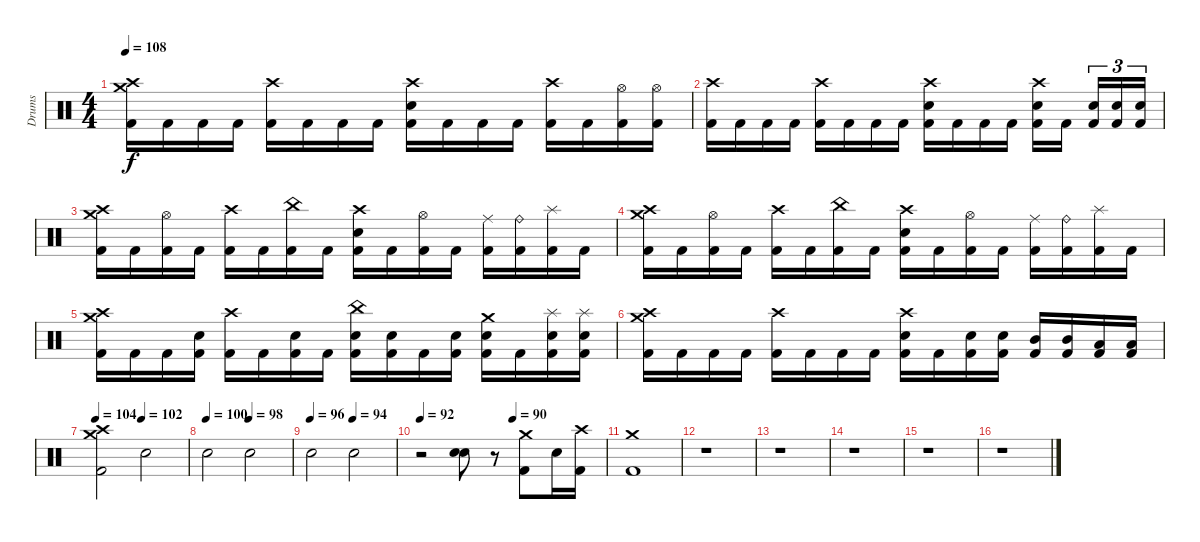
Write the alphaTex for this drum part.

\track ("Drums" "Drums") {instrument percussion}
\staff {score}
\articulation defaults
\ts (4 4)
\tempo 108
\clef neutral
\ks c
("Crash medium (hit)" "Crash high (hit)" "Kick (hit) 2").16{dy f} "Kick (hit) 2".16 "Kick (hit) 2".16 "Kick (hit) 2".16 ("Crash high (hit)" "Kick (hit) 2").16 "Kick (hit) 2".16 "Kick (hit) 2".16 "Kick (hit) 2".16 ("Crash high (hit)" "Electric Snare (hit)" "Kick (hit) 2").16 "Kick (hit) 2".16 "Kick (hit) 2".16 "Kick (hit) 2".16 ("Crash high (hit)" "Kick (hit) 2").16 "Kick (hit) 2".16 ("Hi-Hat (open)" "Kick (hit) 2").16 ("Hi-Hat (open)" "Kick (hit) 2").16 |
("Crash high (hit)" "Kick (hit) 2").16 "Kick (hit) 2".16 "Kick (hit) 2".16 "Kick (hit) 2".16 ("Crash high (hit)" "Kick (hit) 2").16 "Kick (hit) 2".16 "Kick (hit) 2".16 "Kick (hit) 2".16 ("Crash high (hit)" "Electric Snare (hit)" "Kick (hit) 2").16 "Kick (hit) 2".16 "Kick (hit) 2".16 "Kick (hit) 2".16 ("Crash high (hit)" "Electric Snare (hit)" "Kick (hit) 2").16 "Kick (hit) 2".16{beam splitsecondary} ("Electric Snare (hit)" "Kick (hit) 2").16{tu (3 2)} ("Electric Snare (hit)" "Kick (hit) 2").16{tu (3 2)} ("Electric Snare (hit)" "Kick (hit) 2").16{tu (3 2)} |
("Crash medium (hit)" "Crash high (hit)" "Kick (hit) 2").16 "Kick (hit) 2".16 ("Hi-Hat (open)" "Kick (hit) 2").16 "Kick (hit) 2".16 ("Crash high (hit)" "Kick (hit) 2").16 "Kick (hit) 2".16 ("China (hit)" "Kick (hit) 2").16 "Kick (hit) 2".16 ("Crash high (hit)" "Electric Snare (hit)" "Kick (hit) 2").16 "Kick (hit) 2".16 ("Hi-Hat (open)" "Kick (hit) 2").16 "Kick (hit) 2".16 ("Ride (middle)" "Kick (hit) 2").16 ("Ride (bell)" "Kick (hit) 2").16 ("Splash (hit)" "Kick (hit) 2").16 "Kick (hit) 2".16 |
("Crash medium (hit)" "Crash high (hit)" "Kick (hit) 2").16 "Kick (hit) 2".16 ("Hi-Hat (open)" "Kick (hit) 2").16 "Kick (hit) 2".16 ("Crash high (hit)" "Kick (hit) 2").16 "Kick (hit) 2".16 ("China (hit)" "Kick (hit) 2").16 "Kick (hit) 2".16 ("Crash high (hit)" "Electric Snare (hit)" "Kick (hit) 2").16 "Kick (hit) 2".16 ("Hi-Hat (open)" "Kick (hit) 2").16 "Kick (hit) 2".16 ("Ride (middle)" "Kick (hit) 2").16 ("Ride (bell)" "Kick (hit) 2").16 ("Splash (hit)" "Kick (hit) 2").16 "Kick (hit) 2".16 |
("Crash medium (hit)" "Crash high (hit)" "Kick (hit) 2").16 "Kick (hit) 2".16 "Kick (hit) 2".16 ("Electric Snare (hit)" "Kick (hit) 2").16 ("Crash high (hit)" "Kick (hit) 2").16 "Kick (hit) 2".16 ("Electric Snare (hit)" "Kick (hit) 2").16 "Kick (hit) 2".16 ("China (hit)" "Electric Snare (hit)" "Kick (hit) 2").16 ("Electric Snare (hit)" "Kick (hit) 2").16 "Kick (hit) 2".16 ("Electric Snare (hit)" "Kick (hit) 2").16 ("Crash medium (hit)" "Electric Snare (hit)" "Kick (hit) 2").16 "Kick (hit) 2".16 ("Splash (hit)" "Electric Snare (hit)" "Kick (hit) 2").16 ("Splash (hit)" "Electric Snare (hit)" "Kick (hit) 2").16 |
("Crash high (hit)" "Crash medium (hit)" "Kick (hit) 2").16 "Kick (hit) 2".16 "Kick (hit) 2".16 "Kick (hit) 2".16 ("Crash high (hit)" "Kick (hit) 2").16 "Kick (hit) 2".16 "Kick (hit) 2".16 "Kick (hit) 2".16 ("Crash high (hit)" "Electric Snare (hit)" "Kick (hit) 2").16 "Kick (hit) 2".16 ("Electric Snare (hit)" "Kick (hit) 2").16 ("Electric Snare (hit)" "Kick (hit) 2").16 ("Mid Tom (hit)" "Kick (hit) 2").16 ("Mid Tom (hit)" "Kick (hit) 2").16 ("Low Tom (hit)" "Kick (hit) 2").16 ("Low Tom (hit)" "Kick (hit) 2").16 |
\tempo 104
\tempo (102 0.5)
("Crash medium (hit)" "Crash high (hit)" "Kick (hit) 2").2 "Snare (hit)".2 |
\tempo 100
\tempo (98 0.5)
"Snare (hit)".2 "Snare (hit)".2 |
\tempo 96
\tempo (94 0.5)
"Snare (hit)".2 "Snare (hit)".2 |
\tempo 92
\tempo (90 0.5)
r.2 ("Snare (hit)" "Snare (hit)").8 r.8 ("Crash medium (hit)" "Kick (hit) 2").8 "Electric Snare (hit)".16 ("Crash high (hit)" "Kick (hit) 2").16 |
("Crash medium (hit)" "Kick (hit) 2").1 |
r.1 |
r.1 |
r.1 |
r.1 |
r.1
